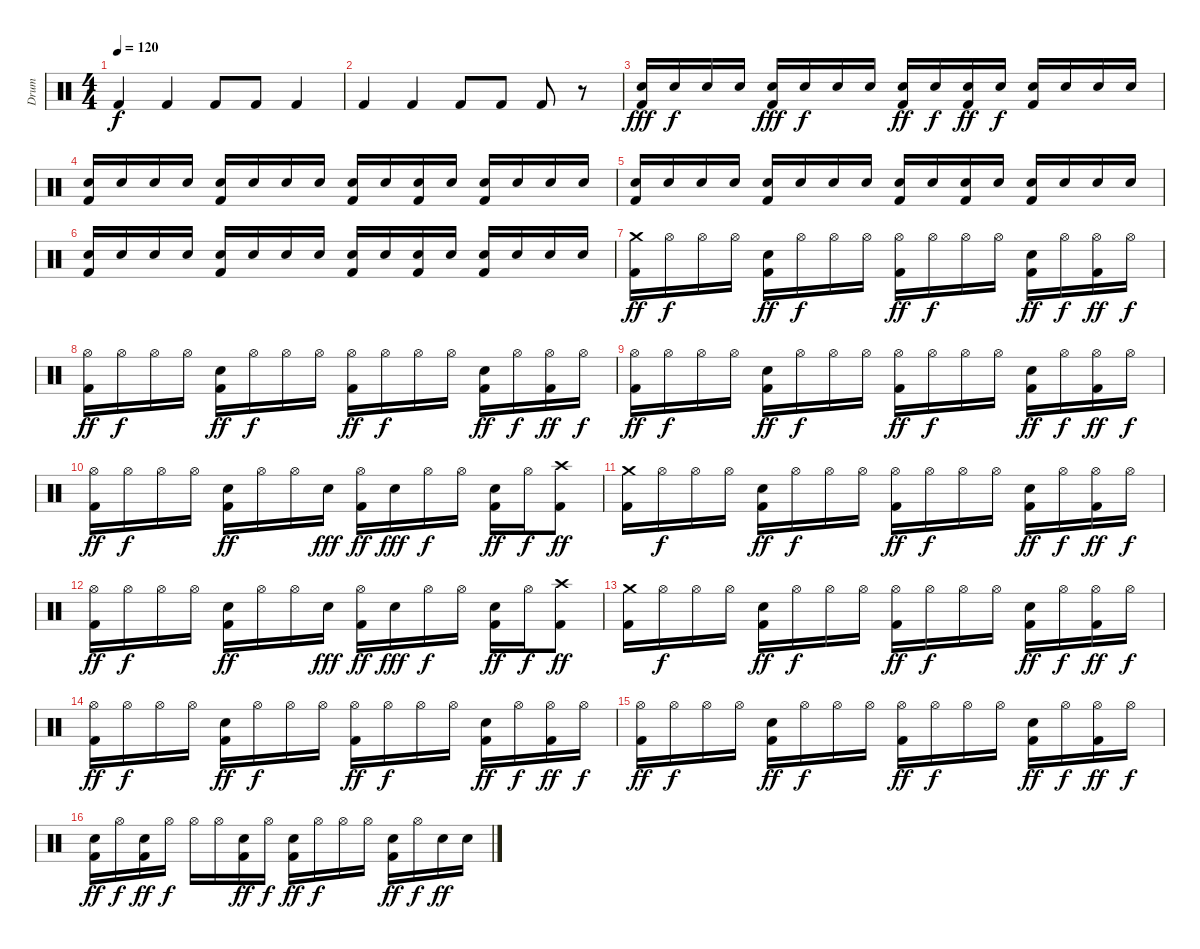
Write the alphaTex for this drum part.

\track ("Drum" "Drum") {instrument percussion}
\staff {score}
\articulation defaults
\ts (4 4)
\tempo 120
\clef neutral
\ks c "Kick (hit) 2".4{dy f} "Kick (hit) 2".4 "Kick (hit) 2".8 "Kick (hit) 2".8 "Kick (hit) 2".4
|
"Kick (hit) 2".4 "Kick (hit) 2".4 "Kick (hit) 2".8 "Kick (hit) 2".8 "Kick (hit) 2".8 r.8{volume 2} |
("Electric Snare (hit)" "Kick (hit) 2").16{dy fff volume 16} "Electric Snare (hit)".16{dy f} "Electric Snare (hit)".16 "Electric Snare (hit)".16 ("Electric Snare (hit)" "Kick (hit) 2").16{dy fff} "Electric Snare (hit)".16{dy f} "Electric Snare (hit)".16 "Electric Snare (hit)".16 ("Electric Snare (hit)" "Kick (hit) 2").16{dy ff} "Electric Snare (hit)".16{dy f} ("Electric Snare (hit)" "Kick (hit) 2").16{dy ff} "Electric Snare (hit)".16{dy f} ("Electric Snare (hit)" "Kick (hit) 2").16 "Electric Snare (hit)".16 "Electric Snare (hit)".16 "Electric Snare (hit)".16 |
("Electric Snare (hit)" "Kick (hit) 2").16 "Electric Snare (hit)".16 "Electric Snare (hit)".16 "Electric Snare (hit)".16 ("Electric Snare (hit)" "Kick (hit) 2").16 "Electric Snare (hit)".16 "Electric Snare (hit)".16 "Electric Snare (hit)".16 ("Electric Snare (hit)" "Kick (hit) 2").16 "Electric Snare (hit)".16 ("Electric Snare (hit)" "Kick (hit) 2").16 "Electric Snare (hit)".16 ("Electric Snare (hit)" "Kick (hit) 2").16 "Electric Snare (hit)".16 "Electric Snare (hit)".16 "Electric Snare (hit)".16 |
("Electric Snare (hit)" "Kick (hit) 2").16 "Electric Snare (hit)".16 "Electric Snare (hit)".16 "Electric Snare (hit)".16 ("Electric Snare (hit)" "Kick (hit) 2").16 "Electric Snare (hit)".16 "Electric Snare (hit)".16 "Electric Snare (hit)".16 ("Electric Snare (hit)" "Kick (hit) 2").16 "Electric Snare (hit)".16 ("Electric Snare (hit)" "Kick (hit) 2").16 "Electric Snare (hit)".16 ("Electric Snare (hit)" "Kick (hit) 2").16 "Electric Snare (hit)".16 "Electric Snare (hit)".16 "Electric Snare (hit)".16 |
("Electric Snare (hit)" "Kick (hit) 2").16 "Electric Snare (hit)".16 "Electric Snare (hit)".16 "Electric Snare (hit)".16 ("Electric Snare (hit)" "Kick (hit) 2").16 "Electric Snare (hit)".16 "Electric Snare (hit)".16 "Electric Snare (hit)".16 ("Electric Snare (hit)" "Kick (hit) 2").16 "Electric Snare (hit)".16 ("Electric Snare (hit)" "Kick (hit) 2").16 "Electric Snare (hit)".16 ("Electric Snare (hit)" "Kick (hit) 2").16 "Electric Snare (hit)".16 "Electric Snare (hit)".16 "Electric Snare (hit)".16 |
("Crash medium (hit)" "Kick (hit) 2").16{dy ff volume 13} "Hi-Hat (open)".16{dy f} "Hi-Hat (open)".16 "Hi-Hat (open)".16 ("Kick (hit) 2" "Electric Snare (hit)").16{dy ff} "Hi-Hat (open)".16{dy f} "Hi-Hat (open)".16 "Hi-Hat (open)".16 ("Hi-Hat (open)" "Kick (hit) 2").16{dy ff} "Hi-Hat (open)".16{dy f} "Hi-Hat (open)".16 "Hi-Hat (open)".16 ("Kick (hit) 2" "Electric Snare (hit)").16{dy ff} "Hi-Hat (open)".16{dy f} ("Hi-Hat (open)" "Kick (hit) 2").16{dy ff} "Hi-Hat (open)".16{dy f} |
("Hi-Hat (open)" "Kick (hit) 2").16{dy ff} "Hi-Hat (open)".16{dy f} "Hi-Hat (open)".16 "Hi-Hat (open)".16 ("Kick (hit) 2" "Electric Snare (hit)").16{dy ff} "Hi-Hat (open)".16{dy f} "Hi-Hat (open)".16 "Hi-Hat (open)".16 ("Hi-Hat (open)" "Kick (hit) 2").16{dy ff} "Hi-Hat (open)".16{dy f} "Hi-Hat (open)".16 "Hi-Hat (open)".16 ("Kick (hit) 2" "Electric Snare (hit)").16{dy ff} "Hi-Hat (open)".16{dy f} ("Hi-Hat (open)" "Kick (hit) 2").16{dy ff} "Hi-Hat (open)".16{dy f} |
("Hi-Hat (open)" "Kick (hit) 2").16{dy ff} "Hi-Hat (open)".16{dy f} "Hi-Hat (open)".16 "Hi-Hat (open)".16 ("Kick (hit) 2" "Electric Snare (hit)").16{dy ff} "Hi-Hat (open)".16{dy f} "Hi-Hat (open)".16 "Hi-Hat (open)".16 ("Hi-Hat (open)" "Kick (hit) 2").16{dy ff} "Hi-Hat (open)".16{dy f} "Hi-Hat (open)".16 "Hi-Hat (open)".16 ("Kick (hit) 2" "Electric Snare (hit)").16{dy ff} "Hi-Hat (open)".16{dy f} ("Hi-Hat (open)" "Kick (hit) 2").16{dy ff} "Hi-Hat (open)".16{dy f} |
("Hi-Hat (open)" "Kick (hit) 2").16{dy ff} "Hi-Hat (open)".16{dy f} "Hi-Hat (open)".16 "Hi-Hat (open)".16 ("Kick (hit) 2" "Electric Snare (hit)").16{dy ff} "Hi-Hat (open)".16 "Hi-Hat (open)".16 "Electric Snare (hit)".16{dy fff} ("Hi-Hat (open)" "Kick (hit) 2").16{dy ff} "Electric Snare (hit)".16{dy fff} "Hi-Hat (open)".16{dy f} "Hi-Hat (open)".16 ("Kick (hit) 2" "Electric Snare (hit)").16{dy ff} "Hi-Hat (open)".16{dy f} ("Crash high (hit)" "Kick (hit) 2").8{dy ff} |
("Crash medium (hit)" "Kick (hit) 2").16 "Hi-Hat (open)".16{dy f} "Hi-Hat (open)".16 "Hi-Hat (open)".16 ("Kick (hit) 2" "Electric Snare (hit)").16{dy ff} "Hi-Hat (open)".16{dy f} "Hi-Hat (open)".16 "Hi-Hat (open)".16 ("Hi-Hat (open)" "Kick (hit) 2").16{dy ff} "Hi-Hat (open)".16{dy f} "Hi-Hat (open)".16 "Hi-Hat (open)".16 ("Kick (hit) 2" "Electric Snare (hit)").16{dy ff} "Hi-Hat (open)".16{dy f} ("Hi-Hat (open)" "Kick (hit) 2").16{dy ff} "Hi-Hat (open)".16{dy f} |
("Hi-Hat (open)" "Kick (hit) 2").16{dy ff} "Hi-Hat (open)".16{dy f} "Hi-Hat (open)".16 "Hi-Hat (open)".16 ("Kick (hit) 2" "Electric Snare (hit)").16{dy ff} "Hi-Hat (open)".16 "Hi-Hat (open)".16 "Electric Snare (hit)".16{dy fff} ("Hi-Hat (open)" "Kick (hit) 2").16{dy ff} "Electric Snare (hit)".16{dy fff} "Hi-Hat (open)".16{dy f} "Hi-Hat (open)".16 ("Kick (hit) 2" "Electric Snare (hit)").16{dy ff} "Hi-Hat (open)".16{dy f} ("Crash high (hit)" "Kick (hit) 2").8{dy ff} |
("Crash medium (hit)" "Kick (hit) 2").16 "Hi-Hat (open)".16{dy f} "Hi-Hat (open)".16 "Hi-Hat (open)".16 ("Kick (hit) 2" "Electric Snare (hit)").16{dy ff} "Hi-Hat (open)".16{dy f} "Hi-Hat (open)".16 "Hi-Hat (open)".16 ("Hi-Hat (open)" "Kick (hit) 2").16{dy ff} "Hi-Hat (open)".16{dy f} "Hi-Hat (open)".16 "Hi-Hat (open)".16 ("Kick (hit) 2" "Electric Snare (hit)").16{dy ff} "Hi-Hat (open)".16{dy f} ("Hi-Hat (open)" "Kick (hit) 2").16{dy ff} "Hi-Hat (open)".16{dy f} |
("Hi-Hat (open)" "Kick (hit) 2").16{dy ff} "Hi-Hat (open)".16{dy f} "Hi-Hat (open)".16 "Hi-Hat (open)".16 ("Kick (hit) 2" "Electric Snare (hit)").16{dy ff} "Hi-Hat (open)".16{dy f} "Hi-Hat (open)".16 "Hi-Hat (open)".16 ("Hi-Hat (open)" "Kick (hit) 2").16{dy ff} "Hi-Hat (open)".16{dy f} "Hi-Hat (open)".16 "Hi-Hat (open)".16 ("Kick (hit) 2" "Electric Snare (hit)").16{dy ff} "Hi-Hat (open)".16{dy f} ("Hi-Hat (open)" "Kick (hit) 2").16{dy ff} "Hi-Hat (open)".16{dy f} |
("Hi-Hat (open)" "Kick (hit) 2").16{dy ff} "Hi-Hat (open)".16{dy f} "Hi-Hat (open)".16 "Hi-Hat (open)".16 ("Kick (hit) 2" "Electric Snare (hit)").16{dy ff} "Hi-Hat (open)".16{dy f} "Hi-Hat (open)".16 "Hi-Hat (open)".16 ("Hi-Hat (open)" "Kick (hit) 2").16{dy ff} "Hi-Hat (open)".16{dy f} "Hi-Hat (open)".16 "Hi-Hat (open)".16 ("Kick (hit) 2" "Electric Snare (hit)").16{dy ff} "Hi-Hat (open)".16{dy f} ("Hi-Hat (open)" "Kick (hit) 2").16{dy ff} "Hi-Hat (open)".16{dy f} |
("Kick (hit) 2" "Electric Snare (hit)").16{dy ff} "Hi-Hat (open)".16{dy f} ("Kick (hit) 2" "Electric Snare (hit)").16{dy ff} "Hi-Hat (open)".16{dy f} "Hi-Hat (open)".16 "Hi-Hat (open)".16 ("Kick (hit) 2" "Electric Snare (hit)").16{dy ff} "Hi-Hat (open)".16{dy f} ("Kick (hit) 2" "Electric Snare (hit)").16{dy ff} "Hi-Hat (open)".16{dy f} "Hi-Hat (open)".16 "Hi-Hat (open)".16 ("Kick (hit) 2" "Electric Snare (hit)").16{dy ff} "Hi-Hat (open)".16{dy f} "Electric Snare (hit)".16{dy ff} "Electric Snare (hit)".16
